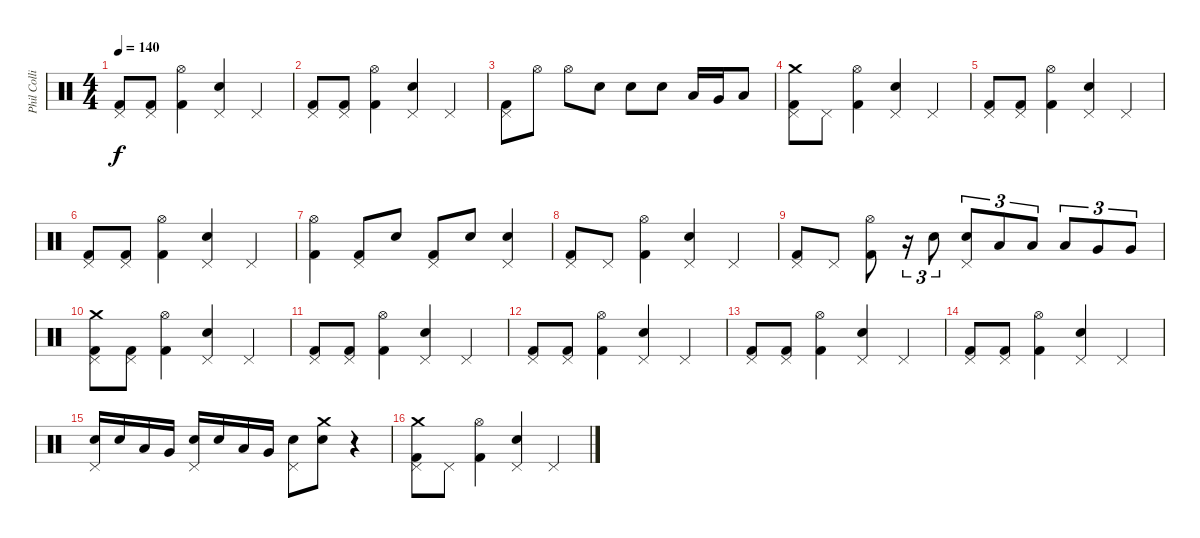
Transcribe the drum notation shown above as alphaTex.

\track ("Phil Collins (drums)" "Phil Colli") {instrument percussion}
\staff {score}
\articulation defaults
\ts (4 4)
\tempo 140
\clef neutral
\ks c
("Pedal Hi-Hat (hit)" "Kick (hit) 2").8{dy f} ("Pedal Hi-Hat (hit)" "Kick (hit) 2").8 ("Hi-Hat (open)" "Kick (hit) 2").4 ("Pedal Hi-Hat (hit)" "Electric Snare (hit)").4 "Pedal Hi-Hat (hit)".4 |
("Pedal Hi-Hat (hit)" "Kick (hit) 2").8 ("Pedal Hi-Hat (hit)" "Kick (hit) 2").8 ("Hi-Hat (open)" "Kick (hit) 2").4 ("Pedal Hi-Hat (hit)" "Electric Snare (hit)").4 "Pedal Hi-Hat (hit)".4 |
("Pedal Hi-Hat (hit)" "Kick (hit) 2").8 "Hi-Hat (open)".8 "Hi-Hat (open)".8 "Electric Snare (hit)".8 "Electric Snare (hit)".8 "Electric Snare (hit)".8 "Low Tom (hit)".16 "Very Low Tom (hit)".16 "Low Floor Tom (hit)".8 |
("Crash medium (hit)" "Pedal Hi-Hat (hit)" "Kick (hit) 2").8 "Pedal Hi-Hat (hit)".8 ("Hi-Hat (open)" "Kick (hit) 2").4 ("Pedal Hi-Hat (hit)" "Electric Snare (hit)").4 "Pedal Hi-Hat (hit)".4 |
("Pedal Hi-Hat (hit)" "Kick (hit) 2").8 ("Pedal Hi-Hat (hit)" "Kick (hit) 2").8 ("Hi-Hat (open)" "Kick (hit) 2").4 ("Pedal Hi-Hat (hit)" "Electric Snare (hit)").4 "Pedal Hi-Hat (hit)".4 |
("Pedal Hi-Hat (hit)" "Kick (hit) 2").8 ("Pedal Hi-Hat (hit)" "Kick (hit) 2").8 ("Hi-Hat (open)" "Kick (hit) 2").4 ("Pedal Hi-Hat (hit)" "Electric Snare (hit)").4 "Pedal Hi-Hat (hit)".4 |
("Hi-Hat (open)" "Kick (hit) 2").4 ("Pedal Hi-Hat (hit)" "Kick (hit) 2").8 "Electric Snare (hit)".8 ("Pedal Hi-Hat (hit)" "Kick (hit) 2").8 "Electric Snare (hit)".8 ("Pedal Hi-Hat (hit)" "Electric Snare (hit)").4 |
("Pedal Hi-Hat (hit)" "Kick (hit) 2").8 "Pedal Hi-Hat (hit)".8 ("Hi-Hat (open)" "Kick (hit) 2").4 ("Pedal Hi-Hat (hit)" "Electric Snare (hit)").4 "Pedal Hi-Hat (hit)".4 |
("Pedal Hi-Hat (hit)" "Kick (hit) 2").8 "Pedal Hi-Hat (hit)".8 ("Hi-Hat (open)" "Kick (hit) 2").8 r.16{tu (3 2)} "Electric Snare (hit)".8{tu (3 2)} ("Pedal Hi-Hat (hit)" "Electric Snare (hit)").8{tu (3 2)} "Low Tom (hit)".8{tu (3 2)} "Low Tom (hit)".8{tu (3 2)} "Low Tom (hit)".8{tu (3 2)} "Very Low Tom (hit)".8{tu (3 2)} "Very Low Tom (hit)".8{tu (3 2)} |
("Crash medium (hit)" "Pedal Hi-Hat (hit)" "Kick (hit) 2").8 ("Pedal Hi-Hat (hit)" "Kick (hit) 2").8 ("Hi-Hat (open)" "Kick (hit) 2").4 ("Pedal Hi-Hat (hit)" "Electric Snare (hit)").4 "Pedal Hi-Hat (hit)".4 |
("Pedal Hi-Hat (hit)" "Kick (hit) 2").8 ("Pedal Hi-Hat (hit)" "Kick (hit) 2").8 ("Hi-Hat (open)" "Kick (hit) 2").4 ("Pedal Hi-Hat (hit)" "Electric Snare (hit)").4 "Pedal Hi-Hat (hit)".4 |
("Pedal Hi-Hat (hit)" "Kick (hit) 2").8 ("Pedal Hi-Hat (hit)" "Kick (hit) 2").8 ("Hi-Hat (open)" "Kick (hit) 2").4 ("Pedal Hi-Hat (hit)" "Electric Snare (hit)").4 "Pedal Hi-Hat (hit)".4 |
("Pedal Hi-Hat (hit)" "Kick (hit) 2").8 ("Pedal Hi-Hat (hit)" "Kick (hit) 2").8 ("Hi-Hat (open)" "Kick (hit) 2").4 ("Pedal Hi-Hat (hit)" "Electric Snare (hit)").4 "Pedal Hi-Hat (hit)".4 |
("Pedal Hi-Hat (hit)" "Kick (hit) 2").8 ("Pedal Hi-Hat (hit)" "Kick (hit) 2").8 ("Hi-Hat (open)" "Kick (hit) 2").4 ("Pedal Hi-Hat (hit)" "Electric Snare (hit)").4 "Pedal Hi-Hat (hit)".4 |
("Pedal Hi-Hat (hit)" "Electric Snare (hit)").16 "Electric Snare (hit)".16 "Low Tom (hit)".16 "Very Low Tom (hit)".16 ("Pedal Hi-Hat (hit)" "Electric Snare (hit)").16 "Electric Snare (hit)".16 "Low Tom (hit)".16 "Very Low Tom (hit)".16 ("Pedal Hi-Hat (hit)" "Electric Snare (hit)").8 ("Crash medium (hit)" "Electric Snare (hit)").8 r.4 |
("Crash medium (hit)" "Pedal Hi-Hat (hit)" "Kick (hit) 2").8 "Pedal Hi-Hat (hit)".8 ("Hi-Hat (open)" "Kick (hit) 2").4 ("Pedal Hi-Hat (hit)" "Electric Snare (hit)").4 "Pedal Hi-Hat (hit)".4
